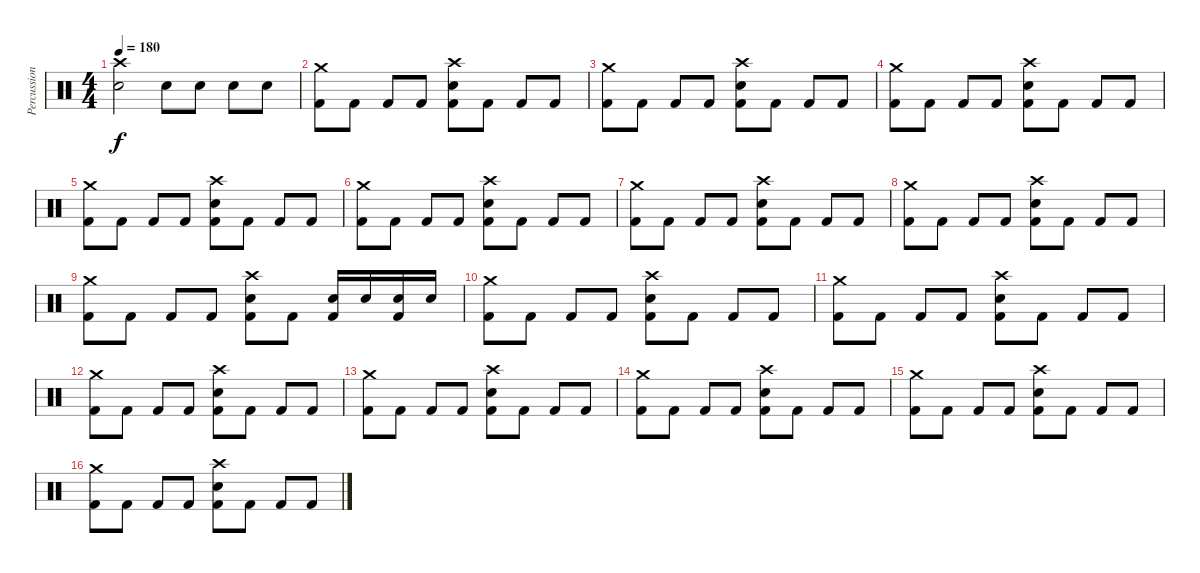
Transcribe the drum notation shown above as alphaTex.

\track ("Percussions" "Percussion") {instrument percussion}
\staff {score}
\articulation defaults
\ts (4 4)
\tempo 180
\clef neutral
\ks c
("Crash high (hit)" "Electric Snare (hit)").2{dy f} "Electric Snare (hit)".8 "Electric Snare (hit)".8 "Electric Snare (hit)".8 "Electric Snare (hit)".8 |
("Crash medium (hit)" "Kick (hit) 2").8 "Kick (hit) 2".8 "Kick (hit) 2".8 "Kick (hit) 2".8 ("Crash high (hit)" "Electric Snare (hit)" "Kick (hit) 2").8 "Kick (hit) 2".8 "Kick (hit) 2".8 "Kick (hit) 2".8 |
("Crash medium (hit)" "Kick (hit) 2").8 "Kick (hit) 2".8 "Kick (hit) 2".8 "Kick (hit) 2".8 ("Crash high (hit)" "Electric Snare (hit)" "Kick (hit) 2").8 "Kick (hit) 2".8 "Kick (hit) 2".8 "Kick (hit) 2".8 |
("Crash medium (hit)" "Kick (hit) 2").8 "Kick (hit) 2".8 "Kick (hit) 2".8 "Kick (hit) 2".8 ("Crash high (hit)" "Electric Snare (hit)" "Kick (hit) 2").8 "Kick (hit) 2".8 "Kick (hit) 2".8 "Kick (hit) 2".8 |
("Crash medium (hit)" "Kick (hit) 2").8 "Kick (hit) 2".8 "Kick (hit) 2".8 "Kick (hit) 2".8 ("Crash high (hit)" "Electric Snare (hit)" "Kick (hit) 2").8 "Kick (hit) 2".8 "Kick (hit) 2".8 "Kick (hit) 2".8 |
("Crash medium (hit)" "Kick (hit) 2").8 "Kick (hit) 2".8 "Kick (hit) 2".8 "Kick (hit) 2".8 ("Crash high (hit)" "Electric Snare (hit)" "Kick (hit) 2").8 "Kick (hit) 2".8 "Kick (hit) 2".8 "Kick (hit) 2".8 |
("Crash medium (hit)" "Kick (hit) 2").8 "Kick (hit) 2".8 "Kick (hit) 2".8 "Kick (hit) 2".8 ("Crash high (hit)" "Electric Snare (hit)" "Kick (hit) 2").8 "Kick (hit) 2".8 "Kick (hit) 2".8 "Kick (hit) 2".8 |
("Crash medium (hit)" "Kick (hit) 2").8 "Kick (hit) 2".8 "Kick (hit) 2".8 "Kick (hit) 2".8 ("Crash high (hit)" "Electric Snare (hit)" "Kick (hit) 2").8 "Kick (hit) 2".8 "Kick (hit) 2".8 "Kick (hit) 2".8 |
("Crash medium (hit)" "Kick (hit) 2").8 "Kick (hit) 2".8 "Kick (hit) 2".8 "Kick (hit) 2".8 ("Crash high (hit)" "Electric Snare (hit)" "Kick (hit) 2").8 "Kick (hit) 2".8 ("Electric Snare (hit)" "Kick (hit) 2").16 "Electric Snare (hit)".16 ("Electric Snare (hit)" "Kick (hit) 2").16 "Electric Snare (hit)".16 |
("Crash medium (hit)" "Kick (hit) 2").8 "Kick (hit) 2".8 "Kick (hit) 2".8 "Kick (hit) 2".8 ("Crash high (hit)" "Electric Snare (hit)" "Kick (hit) 2").8 "Kick (hit) 2".8 "Kick (hit) 2".8 "Kick (hit) 2".8 |
("Crash medium (hit)" "Kick (hit) 2").8 "Kick (hit) 2".8 "Kick (hit) 2".8 "Kick (hit) 2".8 ("Crash high (hit)" "Electric Snare (hit)" "Kick (hit) 2").8 "Kick (hit) 2".8 "Kick (hit) 2".8 "Kick (hit) 2".8 |
("Crash medium (hit)" "Kick (hit) 2").8 "Kick (hit) 2".8 "Kick (hit) 2".8 "Kick (hit) 2".8 ("Crash high (hit)" "Electric Snare (hit)" "Kick (hit) 2").8 "Kick (hit) 2".8 "Kick (hit) 2".8 "Kick (hit) 2".8 |
("Crash medium (hit)" "Kick (hit) 2").8 "Kick (hit) 2".8 "Kick (hit) 2".8 "Kick (hit) 2".8 ("Crash high (hit)" "Electric Snare (hit)" "Kick (hit) 2").8 "Kick (hit) 2".8 "Kick (hit) 2".8 "Kick (hit) 2".8 |
("Crash medium (hit)" "Kick (hit) 2").8 "Kick (hit) 2".8 "Kick (hit) 2".8 "Kick (hit) 2".8 ("Crash high (hit)" "Electric Snare (hit)" "Kick (hit) 2").8 "Kick (hit) 2".8 "Kick (hit) 2".8 "Kick (hit) 2".8 |
("Crash medium (hit)" "Kick (hit) 2").8 "Kick (hit) 2".8 "Kick (hit) 2".8 "Kick (hit) 2".8 ("Crash high (hit)" "Electric Snare (hit)" "Kick (hit) 2").8 "Kick (hit) 2".8 "Kick (hit) 2".8 "Kick (hit) 2".8 |
("Crash medium (hit)" "Kick (hit) 2").8 "Kick (hit) 2".8 "Kick (hit) 2".8 "Kick (hit) 2".8 ("Crash high (hit)" "Electric Snare (hit)" "Kick (hit) 2").8 "Kick (hit) 2".8 "Kick (hit) 2".8 "Kick (hit) 2".8
